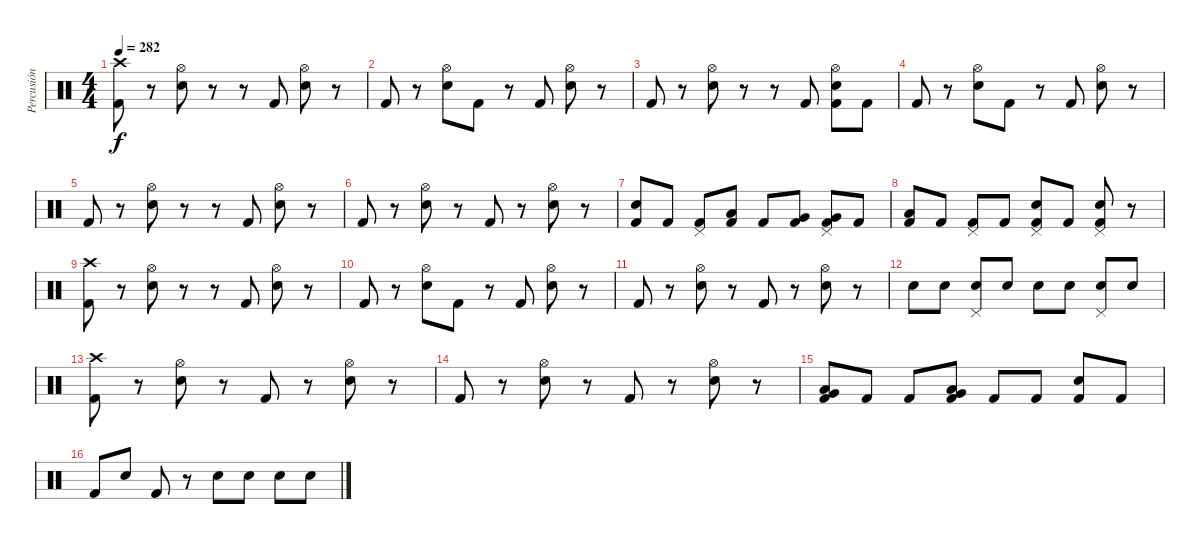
\track ("Percusión" "Percusión") {instrument percussion}
\staff {score}
\articulation defaults
\ts (4 4)
\tempo 282
\clef neutral
\ks c
("Kick (hit) 2" "Crash high (hit)").8{dy f} r.8 ("Snare (hit) 2" "Hi-Hat (open)").8 r.8 r.8 "Kick (hit) 2".8 ("Snare (hit) 2" "Hi-Hat (open)").8 r.8 |
"Kick (hit) 2".8 r.8 ("Snare (hit) 2" "Hi-Hat (open)").8 "Kick (hit) 2".8 r.8 "Kick (hit) 2".8 ("Snare (hit) 2" "Hi-Hat (open)").8 r.8 |
"Kick (hit) 2".8 r.8 ("Snare (hit) 2" "Hi-Hat (open)").8 r.8 r.8 "Kick (hit) 2".8 ("Kick (hit) 2" "Snare (hit) 2" "Hi-Hat (open)").8 "Kick (hit) 2".8 |
"Kick (hit) 2".8 r.8 ("Snare (hit) 2" "Hi-Hat (open)").8 "Kick (hit) 2".8 r.8 "Kick (hit) 2".8 ("Snare (hit) 2" "Hi-Hat (open)").8 r.8 |
"Kick (hit) 2".8 r.8 ("Snare (hit) 2" "Hi-Hat (open)").8 r.8 r.8 "Kick (hit) 2".8 ("Snare (hit) 2" "Hi-Hat (open)").8 r.8 |
"Kick (hit) 2".8 r.8 ("Snare (hit) 2" "Hi-Hat (open)").8 r.8 "Kick (hit) 2".8 r.8 ("Snare (hit) 2" "Hi-Hat (open)").8 r.8 |
("Kick (hit) 2" "Snare (hit) 2").8 "Kick (hit) 2".8 ("Kick (hit) 2" "Pedal Hi-Hat (hit)").8 ("Kick (hit) 2" "Low Tom (hit)").8 "Kick (hit) 2".8 ("Kick (hit) 2" "Very Low Tom (hit)").8 ("Kick (hit) 2" "Very Low Tom (hit)" "Pedal Hi-Hat (hit)").8 "Kick (hit) 2".8 |
("Kick (hit) 2" "Low Floor Tom (hit)").8 "Kick (hit) 2".8 ("Kick (hit) 2" "Pedal Hi-Hat (hit)").8 "Kick (hit) 2".8 ("Kick (hit) 2" "Snare (hit) 2" "Pedal Hi-Hat (hit)").8 "Kick (hit) 2".8 ("Kick (hit) 2" "Snare (hit) 2" "Pedal Hi-Hat (hit)").8 r.8 |
("Kick (hit) 2" "Crash high (hit)").8 r.8 ("Snare (hit) 2" "Hi-Hat (open)").8 r.8 r.8 "Kick (hit) 2".8 ("Snare (hit) 2" "Hi-Hat (open)").8 r.8 |
"Kick (hit) 2".8 r.8 ("Snare (hit) 2" "Hi-Hat (open)").8 "Kick (hit) 2".8 r.8 "Kick (hit) 2".8 ("Snare (hit) 2" "Hi-Hat (open)").8 r.8 |
"Kick (hit) 2".8 r.8 ("Snare (hit) 2" "Hi-Hat (open)").8 r.8 "Kick (hit) 2".8 r.8 ("Snare (hit) 2" "Hi-Hat (open)").8 r.8 |
"Snare (hit) 2".8 "Snare (hit) 2".8 ("Snare (hit) 2" "Pedal Hi-Hat (hit)").8 "Snare (hit) 2".8 "Snare (hit) 2".8 "Snare (hit) 2".8 ("Snare (hit) 2" "Pedal Hi-Hat (hit)").8 "Snare (hit) 2".8 |
("Kick (hit) 2" "Crash high (hit)").8 r.8 ("Snare (hit) 2" "Hi-Hat (open)").8 r.8 "Kick (hit) 2".8 r.8 ("Snare (hit) 2" "Hi-Hat (open)").8 r.8 |
"Kick (hit) 2".8 r.8 ("Snare (hit) 2" "Hi-Hat (open)").8 r.8 "Kick (hit) 2".8 r.8 ("Snare (hit) 2" "Hi-Hat (open)").8 r.8 |
("Kick (hit) 2" "Low Tom (hit)" "Very Low Tom (hit)").8 "Kick (hit) 2".8 "Kick (hit) 2".8 ("Kick (hit) 2" "Very Low Tom (hit)" "Low Floor Tom (hit)").8 "Kick (hit) 2".8 "Kick (hit) 2".8 ("Kick (hit) 2" "Snare (hit) 2").8 "Kick (hit) 2".8 |
"Kick (hit) 2".8 "Snare (hit) 2".8 "Kick (hit) 2".8 r.8 "Snare (hit) 2".8 "Snare (hit) 2".8 "Snare (hit) 2".8 "Snare (hit) 2".8
